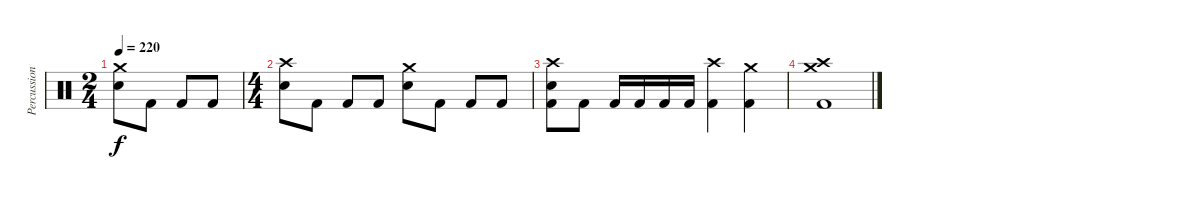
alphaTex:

\track ("Percussion" "Percussion") {instrument percussion}
\staff {score}
\articulation defaults
\ts (2 4)
\tempo 220
\clef neutral
\ks c
("Crash medium (hit)" "Electric Snare (hit)").8{dy f} "Kick (hit) 2".8 "Kick (hit) 2".8 "Kick (hit) 2".8 |
\ts (4 4)
("Crash high (hit)" "Electric Snare (hit)").8 "Kick (hit) 2".8 "Kick (hit) 2".8 "Kick (hit) 2".8 ("Crash medium (hit)" "Electric Snare (hit)").8 "Kick (hit) 2".8 "Kick (hit) 2".8 "Kick (hit) 2".8 |
("Crash high (hit)" "Electric Snare (hit)" "Kick (hit) 2").8 "Kick (hit) 2".8 "Kick (hit) 2".16 "Kick (hit) 2".16 "Kick (hit) 2".16 "Kick (hit) 2".16 ("Crash high (hit)" "Kick (hit) 2").4 ("Crash medium (hit)" "Kick (hit) 2").4 |
("Crash high (hit)" "Crash medium (hit)" "Kick (hit) 2").1
